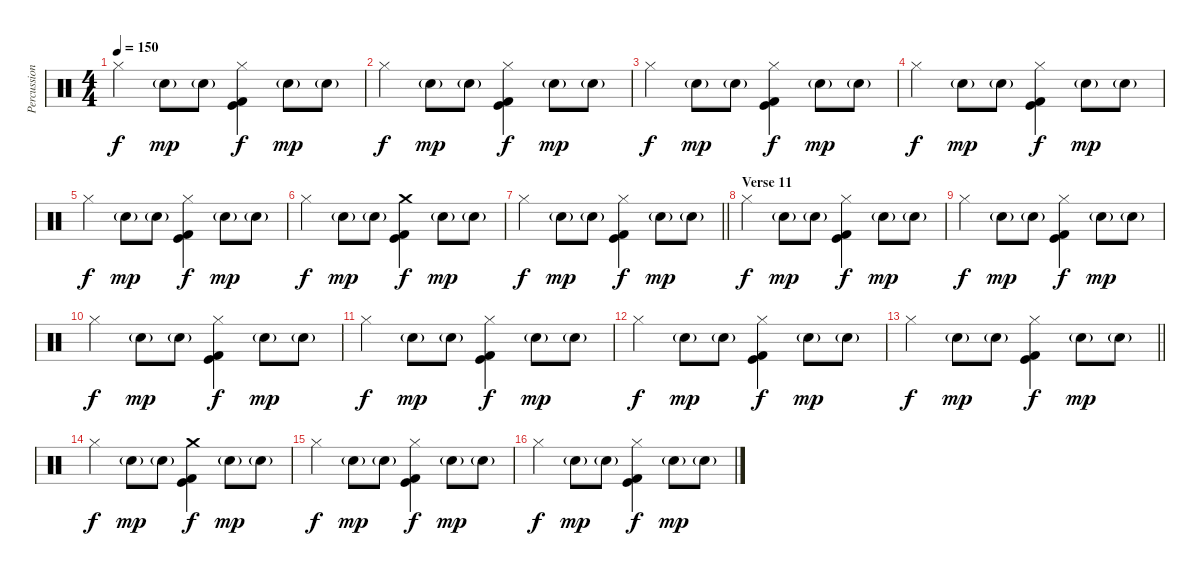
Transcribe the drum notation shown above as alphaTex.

\track ("Percussion" "Percussion") {instrument percussion}
\staff {score}
\articulation defaults
\ts (4 4)
\tempo 150
\clef neutral
\ks c "Hi-Hat (closed)".4{dy f} "Hand Clap (hit)"{g}.8{dy mp} "Hand Clap (hit)"{g}.8
("Hi-Hat (closed)" "Kick (hit)" "Kick (hit) 2").4{dy f} "Hand Clap (hit)"{g}.8{dy mp} "Hand Clap (hit)"{g}.8 |
"Hi-Hat (closed)".4{dy f} "Hand Clap (hit)"{g}.8{dy mp} "Hand Clap (hit)"{g}.8 ("Hi-Hat (closed)" "Kick (hit)" "Kick (hit) 2").4{dy f} "Hand Clap (hit)"{g}.8{dy mp} "Hand Clap (hit)"{g}.8 |
"Hi-Hat (closed)".4{dy f} "Hand Clap (hit)"{g}.8{dy mp} "Hand Clap (hit)"{g}.8 ("Hi-Hat (closed)" "Kick (hit)" "Kick (hit) 2").4{dy f} "Hand Clap (hit)"{g}.8{dy mp} "Hand Clap (hit)"{g}.8 |
"Hi-Hat (closed)".4{dy f} "Hand Clap (hit)"{g}.8{dy mp} "Hand Clap (hit)"{g}.8 ("Hi-Hat (closed)" "Kick (hit)" "Kick (hit) 2").4{dy f} "Hand Clap (hit)"{g}.8{dy mp} "Hand Clap (hit)"{g}.8 |
"Hi-Hat (closed)".4{dy f} "Hand Clap (hit)"{g}.8{dy mp} "Hand Clap (hit)"{g}.8 ("Hi-Hat (closed)" "Kick (hit)" "Kick (hit) 2").4{dy f} "Hand Clap (hit)"{g}.8{dy mp} "Hand Clap (hit)"{g}.8 |
"Hi-Hat (closed)".4{dy f volume 5} "Hand Clap (hit)"{g}.8{dy mp} "Hand Clap (hit)"{g}.8 ("Crash medium (hit)" "Kick (hit)" "Kick (hit) 2").4{dy f} "Hand Clap (hit)"{g}.8{dy mp} "Hand Clap (hit)"{g}.8 |
\barLineRight lightlight "Hi-Hat (closed)".4{dy f} "Hand Clap (hit)"{g}.8{dy mp} "Hand Clap (hit)"{g}.8
("Hi-Hat (closed)" "Kick (hit)" "Kick (hit) 2").4{dy f} "Hand Clap (hit)"{g}.8{dy mp} "Hand Clap (hit)"{g}.8 |
\section ("" "Verse 11")
"Hi-Hat (closed)".4{dy f} "Hand Clap (hit)"{g}.8{dy mp} "Hand Clap (hit)"{g}.8 ("Hi-Hat (closed)" "Kick (hit)" "Kick (hit) 2").4{dy f} "Hand Clap (hit)"{g}.8{dy mp} "Hand Clap (hit)"{g}.8 |
"Hi-Hat (closed)".4{dy f} "Hand Clap (hit)"{g}.8{dy mp} "Hand Clap (hit)"{g}.8 ("Hi-Hat (closed)" "Kick (hit)" "Kick (hit) 2").4{dy f} "Hand Clap (hit)"{g}.8{dy mp} "Hand Clap (hit)"{g}.8 |
"Hi-Hat (closed)".4{dy f volume 2} "Hand Clap (hit)"{g}.8{dy mp} "Hand Clap (hit)"{g}.8 ("Hi-Hat (closed)" "Kick (hit)" "Kick (hit) 2").4{dy f} "Hand Clap (hit)"{g}.8{dy mp} "Hand Clap (hit)"{g}.8 |
"Hi-Hat (closed)".4{dy f} "Hand Clap (hit)"{g}.8{dy mp} "Hand Clap (hit)"{g}.8 ("Hi-Hat (closed)" "Kick (hit)" "Kick (hit) 2").4{dy f} "Hand Clap (hit)"{g}.8{dy mp} "Hand Clap (hit)"{g}.8 |
"Hi-Hat (closed)".4{dy f} "Hand Clap (hit)"{g}.8{dy mp} "Hand Clap (hit)"{g}.8 ("Hi-Hat (closed)" "Kick (hit)" "Kick (hit) 2").4{dy f} "Hand Clap (hit)"{g}.8{dy mp} "Hand Clap (hit)"{g}.8 |
\barLineRight lightlight "Hi-Hat (closed)".4{dy f} "Hand Clap (hit)"{g}.8{dy mp} "Hand Clap (hit)"{g}.8
("Hi-Hat (closed)" "Kick (hit)" "Kick (hit) 2").4{dy f} "Hand Clap (hit)"{g}.8{dy mp} "Hand Clap (hit)"{g}.8 |
\section ("" "")
"Hi-Hat (closed)".4{dy f volume 0} "Hand Clap (hit)"{g}.8{dy mp} "Hand Clap (hit)"{g}.8 ("Crash medium (hit)" "Kick (hit)" "Kick (hit) 2").4{dy f} "Hand Clap (hit)"{g}.8{dy mp} "Hand Clap (hit)"{g}.8 |
"Hi-Hat (closed)".4{dy f} "Hand Clap (hit)"{g}.8{dy mp} "Hand Clap (hit)"{g}.8 ("Hi-Hat (closed)" "Kick (hit)" "Kick (hit) 2").4{dy f} "Hand Clap (hit)"{g}.8{dy mp} "Hand Clap (hit)"{g}.8 |
"Hi-Hat (closed)".4{dy f} "Hand Clap (hit)"{g}.8{dy mp} "Hand Clap (hit)"{g}.8 ("Hi-Hat (closed)" "Kick (hit)" "Kick (hit) 2").4{dy f} "Hand Clap (hit)"{g}.8{dy mp} "Hand Clap (hit)"{g}.8
